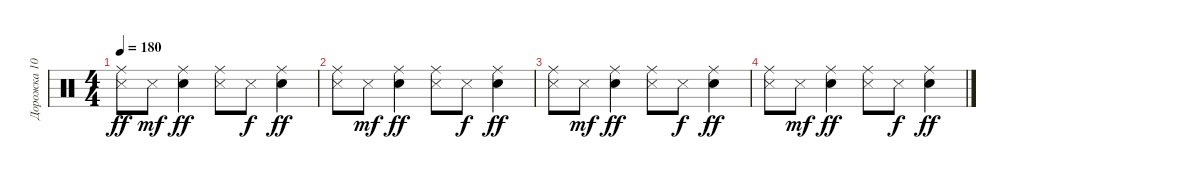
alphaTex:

\track ("Дорожка 10" "Дорожка 10") {instrument percussion}
\staff {score}
\articulation defaults
\ts (4 4)
\tempo 180
\clef neutral
\ks c
("Metronome (hit)" "Ride (middle)").8{dy ff} "Metronome (hit)".8{dy mf} ("Snare (hit) 2" "Ride (middle)").4{dy ff} ("Metronome (hit)" "Ride (middle)").8 "Metronome (hit)".8{dy f} ("Snare (hit) 2" "Ride (middle)").4{dy ff} |
("Metronome (hit)" "Ride (middle)").8 "Metronome (hit)".8{dy mf} ("Snare (hit) 2" "Ride (middle)").4{dy ff} ("Metronome (hit)" "Ride (middle)").8 "Metronome (hit)".8{dy f} ("Snare (hit) 2" "Ride (middle)").4{dy ff} |
("Metronome (hit)" "Ride (middle)").8 "Metronome (hit)".8{dy mf} ("Snare (hit) 2" "Ride (middle)").4{dy ff} ("Metronome (hit)" "Ride (middle)").8 "Metronome (hit)".8{dy f} ("Snare (hit) 2" "Ride (middle)").4{dy ff} |
("Metronome (hit)" "Ride (middle)").8 "Metronome (hit)".8{dy mf} ("Snare (hit) 2" "Ride (middle)").4{dy ff} ("Metronome (hit)" "Ride (middle)").8 "Metronome (hit)".8{dy f} ("Snare (hit) 2" "Ride (middle)").4{dy ff}
